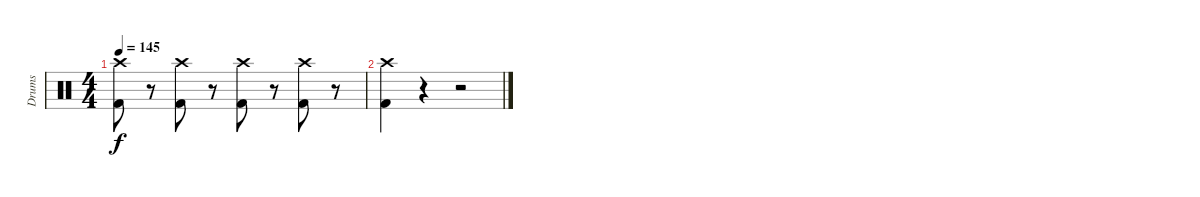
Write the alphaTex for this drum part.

\track ("Drums" "Drums") {instrument percussion}
\staff {score}
\articulation defaults
\ts (4 4)
\tempo 145
\clef neutral
\ks c
("Crash high (hit)" "Kick (hit) 2").8{dy f} r.8 ("Crash high (hit)" "Kick (hit) 2").8 r.8 ("Crash high (hit)" "Kick (hit) 2").8 r.8 ("Crash high (hit)" "Kick (hit) 2").8 r.8 |
("Crash high (hit)" "Kick (hit) 2").4 r.4 r.2
